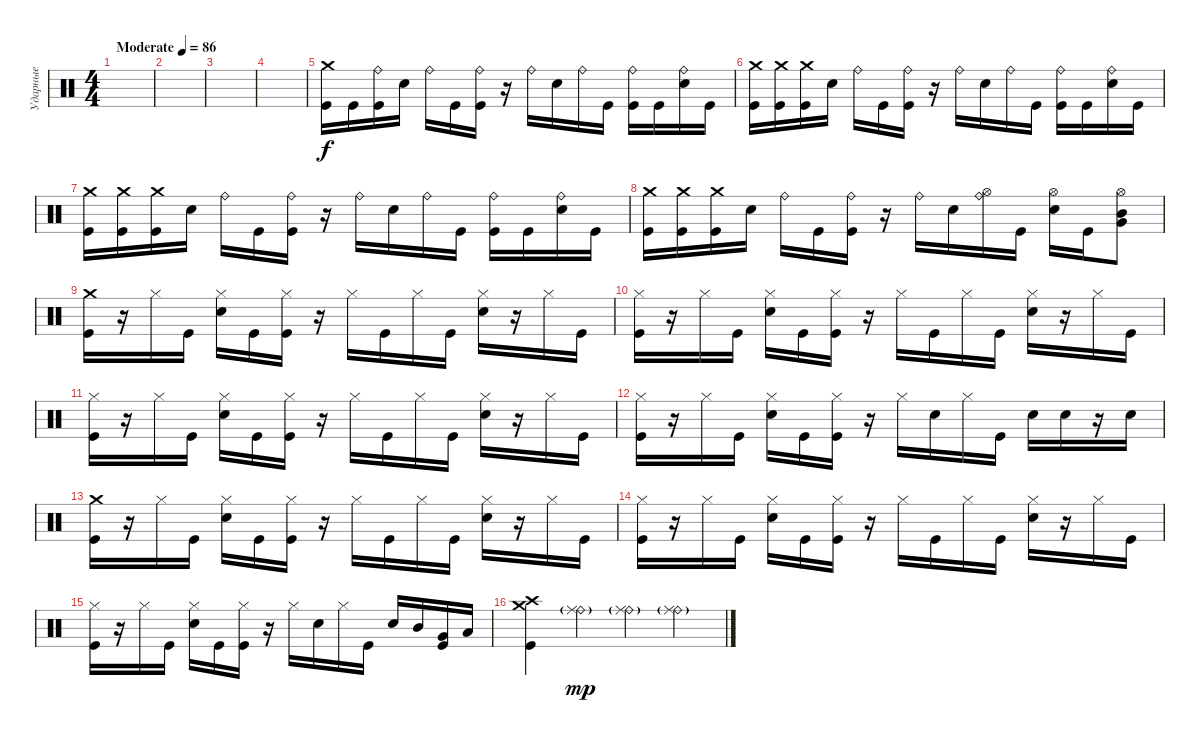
\track ("Ударные" "Ударные") {instrument percussion}
\staff {score}
\articulation defaults
\ts (4 4)
\tempo (86 "Moderate")
\clef neutral
\ks c
|
|
|
|
("Crash medium (hit)" "Kick (hit)").16 "Kick (hit)".16 ("Ride (bell)" "Kick (hit)").16 "Snare (hit) 2".16 "Ride (bell)".16 "Kick (hit)".16 ("Ride (bell)" "Kick (hit)").16 r.16 "Ride (bell)".16 "Snare (hit) 2".16 "Ride (bell)".16 "Kick (hit)".16 ("Ride (bell)" "Kick (hit)").16 "Kick (hit)".16 ("Ride (bell)" "Snare (hit) 2").16 "Kick (hit)".16 |
("Crash medium (hit)" "Kick (hit)").16 ("Crash medium (hit)" "Kick (hit)").16 ("Crash medium (hit)" "Kick (hit)").16 "Snare (hit) 2".16 "Ride (bell)".16 "Kick (hit)".16 ("Ride (bell)" "Kick (hit)").16 r.16 "Ride (bell)".16 "Snare (hit) 2".16 "Ride (bell)".16 "Kick (hit)".16 ("Ride (bell)" "Kick (hit)").16 "Kick (hit)".16 ("Ride (bell)" "Snare (hit) 2").16 "Kick (hit)".16 |
("Crash medium (hit)" "Kick (hit)").16 ("Crash medium (hit)" "Kick (hit)").16 ("Crash medium (hit)" "Kick (hit)").16 "Snare (hit) 2".16 "Ride (bell)".16 "Kick (hit)".16 ("Ride (bell)" "Kick (hit)").16 r.16 "Ride (bell)".16 "Snare (hit) 2".16 "Ride (bell)".16 "Kick (hit)".16 ("Ride (bell)" "Kick (hit)").16 "Kick (hit)".16 ("Ride (bell)" "Snare (hit) 2").16 "Kick (hit)".16 |
("Crash medium (hit)" "Kick (hit)").16 ("Crash medium (hit)" "Kick (hit)").16 ("Crash medium (hit)" "Kick (hit)").16 "Snare (hit) 2".16 "Ride (bell)".16 "Kick (hit)".16 ("Ride (bell)" "Kick (hit)").16 r.16 "Ride (bell)".16 "Snare (hit) 2".16 ("Ride (bell)" "Hi-Hat (open)").16 "Kick (hit)".16 ("Hi-Hat (open)" "Snare (hit) 2").16 "Kick (hit)".16 ("Hi-Hat (open)" "Very Low Tom (hit)" "Mid Tom (hit)").8 |
("Crash medium (hit)" "Kick (hit)").16 r.16 "Hi-Hat (closed)".16 "Kick (hit)".16 ("Hi-Hat (closed)" "Snare (hit) 2").16 "Kick (hit)".16 ("Hi-Hat (closed)" "Kick (hit)").16 r.16 "Hi-Hat (closed)".16 "Kick (hit)".16 "Hi-Hat (closed)".16 "Kick (hit)".16 ("Hi-Hat (closed)" "Snare (hit) 2").16 r.16 "Hi-Hat (closed)".16 "Kick (hit)".16 |
("Hi-Hat (closed)" "Kick (hit)").16 r.16 "Hi-Hat (closed)".16 "Kick (hit)".16 ("Hi-Hat (closed)" "Snare (hit) 2").16 "Kick (hit)".16 ("Hi-Hat (closed)" "Kick (hit)").16 r.16 "Hi-Hat (closed)".16 "Kick (hit)".16 "Hi-Hat (closed)".16 "Kick (hit)".16 ("Hi-Hat (closed)" "Snare (hit) 2").16 r.16 "Hi-Hat (closed)".16 "Kick (hit)".16 |
("Hi-Hat (closed)" "Kick (hit)").16 r.16 "Hi-Hat (closed)".16 "Kick (hit)".16 ("Hi-Hat (closed)" "Snare (hit) 2").16 "Kick (hit)".16 ("Hi-Hat (closed)" "Kick (hit)").16 r.16 "Hi-Hat (closed)".16 "Kick (hit)".16 "Hi-Hat (closed)".16 "Kick (hit)".16 ("Hi-Hat (closed)" "Snare (hit) 2").16 r.16 "Hi-Hat (closed)".16 "Kick (hit)".16 |
("Hi-Hat (closed)" "Kick (hit)").16 r.16 "Hi-Hat (closed)".16 "Kick (hit)".16 ("Hi-Hat (closed)" "Snare (hit) 2").16 "Kick (hit)".16 ("Hi-Hat (closed)" "Kick (hit)").16 r.16 "Hi-Hat (closed)".16 "Snare (hit) 2".16 "Hi-Hat (closed)".16 "Kick (hit)".16 "Snare (hit) 2".16 "Snare (hit) 2".16 r.16 "Snare (hit) 2".16 |
("Crash medium (hit)" "Kick (hit)").16 r.16 "Hi-Hat (closed)".16 "Kick (hit)".16 ("Hi-Hat (closed)" "Snare (hit) 2").16 "Kick (hit)".16 ("Hi-Hat (closed)" "Kick (hit)").16 r.16 "Hi-Hat (closed)".16 "Kick (hit)".16 "Hi-Hat (closed)".16 "Kick (hit)".16 ("Hi-Hat (closed)" "Snare (hit) 2").16 r.16 "Hi-Hat (closed)".16 "Kick (hit)".16 |
("Hi-Hat (closed)" "Kick (hit)").16 r.16 "Hi-Hat (closed)".16 "Kick (hit)".16 ("Hi-Hat (closed)" "Snare (hit) 2").16 "Kick (hit)".16 ("Hi-Hat (closed)" "Kick (hit)").16 r.16 "Hi-Hat (closed)".16 "Kick (hit)".16 "Hi-Hat (closed)".16 "Kick (hit)".16 ("Hi-Hat (closed)" "Snare (hit) 2").16 r.16 "Hi-Hat (closed)".16 "Kick (hit)".16 |
("Hi-Hat (closed)" "Kick (hit)").16 r.16 "Hi-Hat (closed)".16 "Kick (hit)".16 ("Hi-Hat (closed)" "Snare (hit) 2").16 "Kick (hit)".16 ("Hi-Hat (closed)" "Kick (hit)").16 r.16 "Hi-Hat (closed)".16 "Snare (hit) 2".16 "Hi-Hat (closed)".16 "Kick (hit)".16 "Snare (hit) 2".16 "Mid Tom (hit)".16 ("Very Low Tom (hit)" "Kick (hit)").16 "Low Floor Tom (hit)".16 |
("Crash medium (hit)" "Crash high (hit)" "Kick (hit)").4 ("Ride (bell)"{g} "Ride (middle)").4{dy mp} ("Ride (bell)"{g} "Ride (middle)").4 ("Ride (bell)"{g} "Ride (middle)").4
